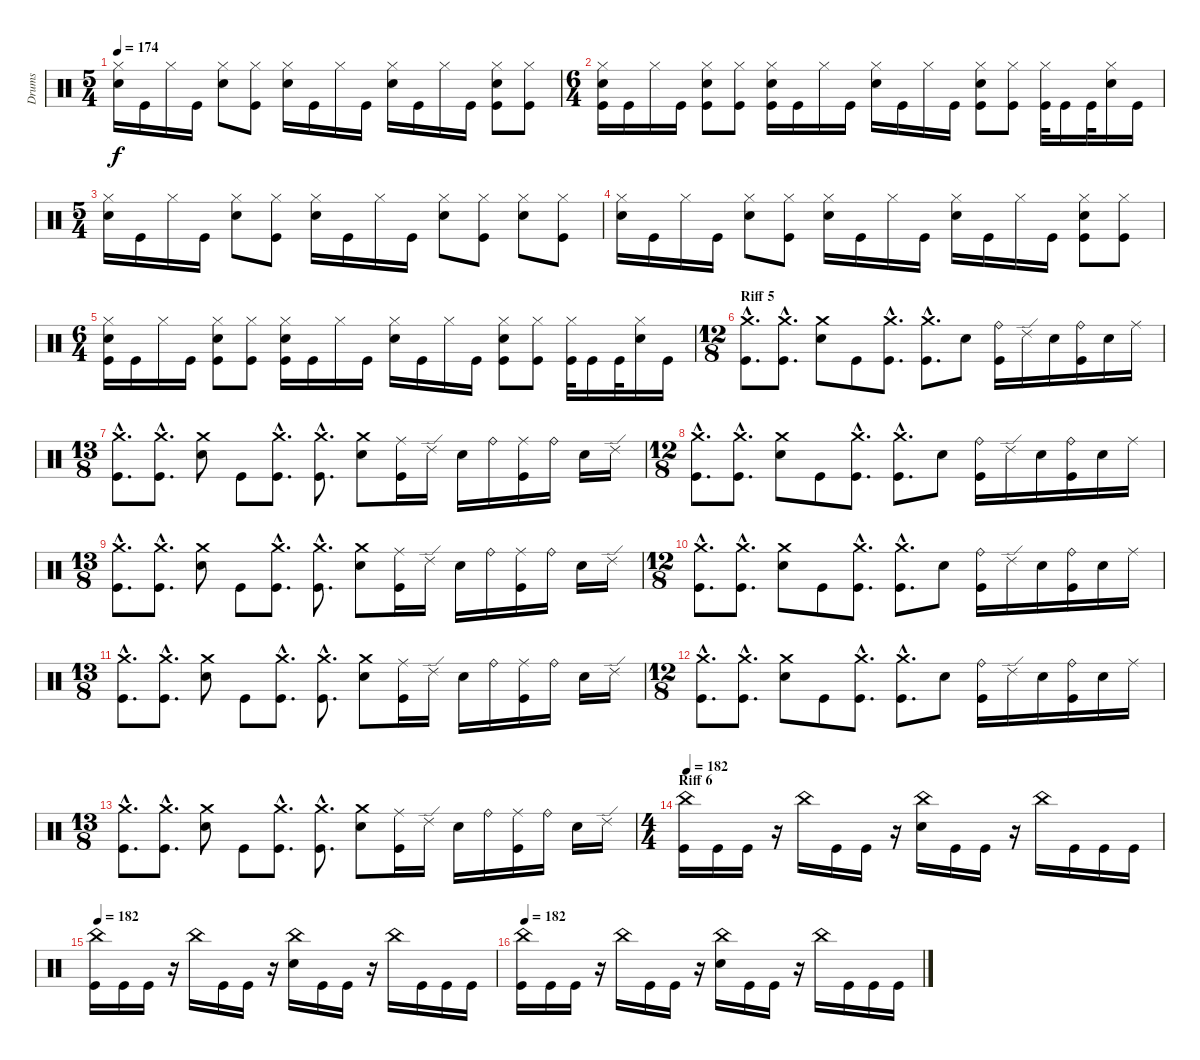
\track ("Drums" "Drums") {instrument percussion}
\staff {score}
\articulation defaults
\ts (5 4)
\tempo 174
\clef neutral
\ks c
("Hi-Hat (closed)" "Electric Snare (hit)").16{dy f} "Kick (hit)".16 "Hi-Hat (closed)".16 "Kick (hit)".16 ("Hi-Hat (closed)" "Electric Snare (hit)").8 ("Hi-Hat (closed)" "Kick (hit)").8 ("Hi-Hat (closed)" "Electric Snare (hit)").16 "Kick (hit)".16 "Hi-Hat (closed)".16 "Kick (hit)".16 ("Hi-Hat (closed)" "Electric Snare (hit)").16 "Kick (hit)".16 "Hi-Hat (closed)".16 "Kick (hit)".16 ("Hi-Hat (closed)" "Electric Snare (hit)" "Kick (hit)").8 ("Hi-Hat (closed)" "Kick (hit)").8 |
\ts (6 4)
("Hi-Hat (closed)" "Electric Snare (hit)" "Kick (hit)").16 "Kick (hit)".16 "Hi-Hat (closed)".16 "Kick (hit)".16 ("Hi-Hat (closed)" "Electric Snare (hit)" "Kick (hit)").8 ("Hi-Hat (closed)" "Kick (hit)").8 ("Hi-Hat (closed)" "Electric Snare (hit)" "Kick (hit)").16 "Kick (hit)".16 "Hi-Hat (closed)".16 "Kick (hit)".16 ("Hi-Hat (closed)" "Electric Snare (hit)").16 "Kick (hit)".16 "Hi-Hat (closed)".16 "Kick (hit)".16 ("Hi-Hat (closed)" "Electric Snare (hit)" "Kick (hit)").8 ("Hi-Hat (closed)" "Kick (hit)").8 ("Hi-Hat (closed)" "Kick (hit)").32 "Kick (hit)".16 "Kick (hit)".32 ("Hi-Hat (closed)" "Electric Snare (hit)").16 "Kick (hit)".16 |
\ts (5 4)
("Hi-Hat (closed)" "Electric Snare (hit)").16 "Kick (hit)".16 "Hi-Hat (closed)".16 "Kick (hit)".16 ("Hi-Hat (closed)" "Electric Snare (hit)").8 ("Hi-Hat (closed)" "Kick (hit)").8 ("Hi-Hat (closed)" "Electric Snare (hit)").16 "Kick (hit)".16 "Hi-Hat (closed)".16 "Kick (hit)".16 ("Hi-Hat (closed)" "Electric Snare (hit)").8 ("Hi-Hat (closed)" "Kick (hit)").8 ("Hi-Hat (closed)" "Electric Snare (hit)").8 ("Hi-Hat (closed)" "Kick (hit)").8 |
("Hi-Hat (closed)" "Electric Snare (hit)").16 "Kick (hit)".16 "Hi-Hat (closed)".16 "Kick (hit)".16 ("Hi-Hat (closed)" "Electric Snare (hit)").8 ("Hi-Hat (closed)" "Kick (hit)").8 ("Hi-Hat (closed)" "Electric Snare (hit)").16 "Kick (hit)".16 "Hi-Hat (closed)".16 "Kick (hit)".16 ("Hi-Hat (closed)" "Electric Snare (hit)").16 "Kick (hit)".16 "Hi-Hat (closed)".16 "Kick (hit)".16 ("Hi-Hat (closed)" "Electric Snare (hit)" "Kick (hit)").8 ("Hi-Hat (closed)" "Kick (hit)").8 |
\ts (6 4)
("Hi-Hat (closed)" "Electric Snare (hit)" "Kick (hit)").16 "Kick (hit)".16 "Hi-Hat (closed)".16 "Kick (hit)".16 ("Hi-Hat (closed)" "Electric Snare (hit)" "Kick (hit)").8 ("Hi-Hat (closed)" "Kick (hit)").8 ("Hi-Hat (closed)" "Electric Snare (hit)" "Kick (hit)").16 "Kick (hit)".16 "Hi-Hat (closed)".16 "Kick (hit)".16 ("Hi-Hat (closed)" "Electric Snare (hit)").16 "Kick (hit)".16 "Hi-Hat (closed)".16 "Kick (hit)".16 ("Hi-Hat (closed)" "Electric Snare (hit)" "Kick (hit)").8 ("Hi-Hat (closed)" "Kick (hit)").8 ("Hi-Hat (closed)" "Kick (hit)").32 "Kick (hit)".16 "Kick (hit)".32 ("Hi-Hat (closed)" "Electric Snare (hit)").16 "Kick (hit)".16 |
\ts (12 8)
\section ("" "Riff 5")
("Crash medium (hit)"{hac} "Kick (hit)"{hac}).8{d} ("Crash medium (hit)"{hac} "Kick (hit)"{hac}).8{d} ("Crash medium (hit)" "Electric Snare (hit)").8 "Kick (hit)".8 ("Crash medium (hit)"{hac} "Kick (hit)"{hac}).8{d} ("Crash medium (hit)"{hac} "Kick (hit)"{hac}).8{d} "Electric Snare (hit)".8 ("Ride (bell)" "Kick (hit)").16 "Ride (edge) 2".16 "Electric Snare (hit)".16 ("Ride (bell)" "Kick (hit)").16 "Electric Snare (hit)".16 "Ride (middle)".16 |
\ts (13 8)
("Crash medium (hit)"{hac} "Kick (hit)"{hac}).8{d} ("Crash medium (hit)"{hac} "Kick (hit)"{hac}).8{d} ("Crash medium (hit)" "Electric Snare (hit)").8 "Kick (hit)".8 ("Crash medium (hit)"{hac} "Kick (hit)"{hac}).8{d} ("Crash medium (hit)"{hac} "Kick (hit)"{hac}).8{d} ("Crash medium (hit)" "Electric Snare (hit)").8 ("Ride (middle)" "Kick (hit)").16 "Ride (edge) 2".16 "Electric Snare (hit)".16 "Ride (bell)".16 ("Ride (middle)" "Kick (hit)").16 "Ride (bell)".16 "Electric Snare (hit)".16 "Ride (edge) 2".16 |
\ts (12 8)
("Crash medium (hit)"{hac} "Kick (hit)"{hac}).8{d} ("Crash medium (hit)"{hac} "Kick (hit)"{hac}).8{d} ("Crash medium (hit)" "Electric Snare (hit)").8 "Kick (hit)".8 ("Crash medium (hit)"{hac} "Kick (hit)"{hac}).8{d} ("Crash medium (hit)"{hac} "Kick (hit)"{hac}).8{d} "Electric Snare (hit)".8 ("Ride (bell)" "Kick (hit)").16 "Ride (edge) 2".16 "Electric Snare (hit)".16 ("Ride (bell)" "Kick (hit)").16 "Electric Snare (hit)".16 "Ride (middle)".16 |
\ts (13 8)
("Crash medium (hit)"{hac} "Kick (hit)"{hac}).8{d} ("Crash medium (hit)"{hac} "Kick (hit)"{hac}).8{d} ("Crash medium (hit)" "Electric Snare (hit)").8 "Kick (hit)".8 ("Crash medium (hit)"{hac} "Kick (hit)"{hac}).8{d} ("Crash medium (hit)"{hac} "Kick (hit)"{hac}).8{d} ("Crash medium (hit)" "Electric Snare (hit)").8 ("Ride (middle)" "Kick (hit)").16 "Ride (edge) 2".16 "Electric Snare (hit)".16 "Ride (bell)".16 ("Ride (middle)" "Kick (hit)").16 "Ride (bell)".16 "Electric Snare (hit)".16 "Ride (edge) 2".16 |
\ts (12 8)
("Crash medium (hit)"{hac} "Kick (hit)"{hac}).8{d} ("Crash medium (hit)"{hac} "Kick (hit)"{hac}).8{d} ("Crash medium (hit)" "Electric Snare (hit)").8 "Kick (hit)".8 ("Crash medium (hit)"{hac} "Kick (hit)"{hac}).8{d} ("Crash medium (hit)"{hac} "Kick (hit)"{hac}).8{d} "Electric Snare (hit)".8 ("Ride (bell)" "Kick (hit)").16 "Ride (edge) 2".16 "Electric Snare (hit)".16 ("Ride (bell)" "Kick (hit)").16 "Electric Snare (hit)".16 "Ride (middle)".16 |
\ts (13 8)
("Crash medium (hit)"{hac} "Kick (hit)"{hac}).8{d} ("Crash medium (hit)"{hac} "Kick (hit)"{hac}).8{d} ("Crash medium (hit)" "Electric Snare (hit)").8 "Kick (hit)".8 ("Crash medium (hit)"{hac} "Kick (hit)"{hac}).8{d} ("Crash medium (hit)"{hac} "Kick (hit)"{hac}).8{d} ("Crash medium (hit)" "Electric Snare (hit)").8 ("Ride (middle)" "Kick (hit)").16 "Ride (edge) 2".16 "Electric Snare (hit)".16 "Ride (bell)".16 ("Ride (middle)" "Kick (hit)").16 "Ride (bell)".16 "Electric Snare (hit)".16 "Ride (edge) 2".16 |
\ts (12 8)
("Crash medium (hit)"{hac} "Kick (hit)"{hac}).8{d} ("Crash medium (hit)"{hac} "Kick (hit)"{hac}).8{d} ("Crash medium (hit)" "Electric Snare (hit)").8 "Kick (hit)".8 ("Crash medium (hit)"{hac} "Kick (hit)"{hac}).8{d} ("Crash medium (hit)"{hac} "Kick (hit)"{hac}).8{d} "Electric Snare (hit)".8 ("Ride (bell)" "Kick (hit)").16 "Ride (edge) 2".16 "Electric Snare (hit)".16 ("Ride (bell)" "Kick (hit)").16 "Electric Snare (hit)".16 "Ride (middle)".16 |
\ts (13 8)
("Crash medium (hit)"{hac} "Kick (hit)"{hac}).8{d} ("Crash medium (hit)"{hac} "Kick (hit)"{hac}).8{d} ("Crash medium (hit)" "Electric Snare (hit)").8 "Kick (hit)".8 ("Crash medium (hit)"{hac} "Kick (hit)"{hac}).8{d} ("Crash medium (hit)"{hac} "Kick (hit)"{hac}).8{d} ("Crash medium (hit)" "Electric Snare (hit)").8 ("Ride (middle)" "Kick (hit)").16 "Ride (edge) 2".16 "Electric Snare (hit)".16 "Ride (bell)".16 ("Ride (middle)" "Kick (hit)").16 "Ride (bell)".16 "Electric Snare (hit)".16 "Ride (edge) 2".16 |
\ts (4 4)
\section ("" "Riff 6")
\tempo 182
("China (hit)" "Kick (hit)").16 "Kick (hit)".16 "Kick (hit)".16 r.16 "China (hit)".16 "Kick (hit)".16 "Kick (hit)".16 r.16 ("China (hit)" "Electric Snare (hit)").16 "Kick (hit)".16 "Kick (hit)".16 r.16 "China (hit)".16 "Kick (hit)".16 "Kick (hit)".16 "Kick (hit)".16 |
\tempo 182
("China (hit)" "Kick (hit)").16 "Kick (hit)".16 "Kick (hit)".16 r.16 "China (hit)".16 "Kick (hit)".16 "Kick (hit)".16 r.16 ("China (hit)" "Electric Snare (hit)").16 "Kick (hit)".16 "Kick (hit)".16 r.16 "China (hit)".16 "Kick (hit)".16 "Kick (hit)".16 "Kick (hit)".16 |
\tempo 182
("China (hit)" "Kick (hit)").16 "Kick (hit)".16 "Kick (hit)".16 r.16 "China (hit)".16 "Kick (hit)".16 "Kick (hit)".16 r.16 ("China (hit)" "Electric Snare (hit)").16 "Kick (hit)".16 "Kick (hit)".16 r.16 "China (hit)".16 "Kick (hit)".16 "Kick (hit)".16 "Kick (hit)".16
